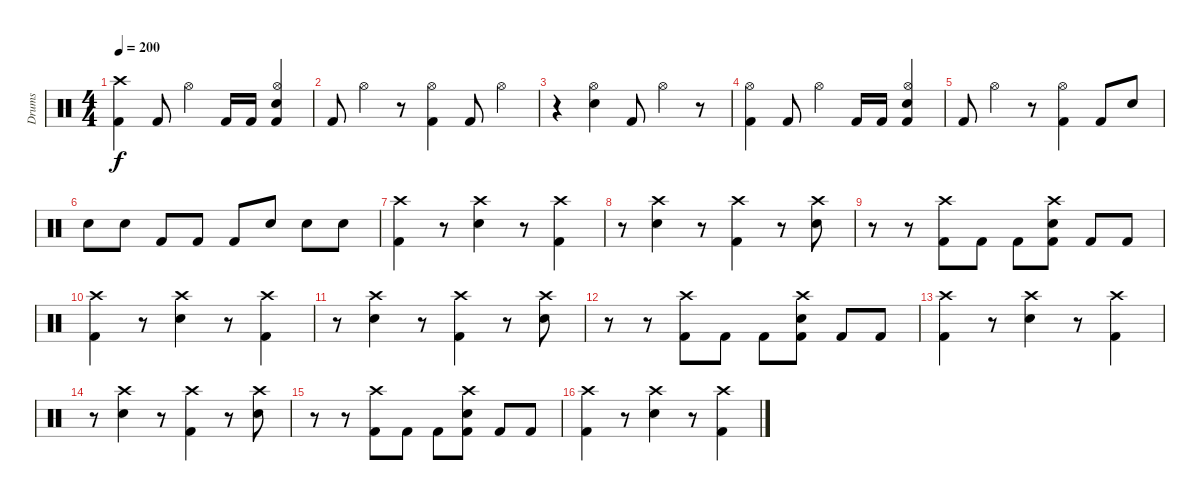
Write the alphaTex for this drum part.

\track ("Drums" "Drums") {instrument percussion}
\staff {score}
\articulation defaults
\ts (4 4)
\tempo 200
\clef neutral
\ks c
("Crash high (hit)" "Kick (hit) 2").4{dy f} "Kick (hit) 2".8 "Hi-Hat (open)".4 "Kick (hit) 2".16 "Kick (hit) 2".16 ("Hi-Hat (open)" "Snare (hit) 2" "Kick (hit) 2").4 |
"Kick (hit) 2".8 "Hi-Hat (open)".4 r.8 ("Hi-Hat (open)" "Kick (hit) 2").4 "Kick (hit) 2".8 "Hi-Hat (open)".4 |
r.4 ("Hi-Hat (open)" "Snare (hit) 2").4 "Kick (hit) 2".8 "Hi-Hat (open)".4 r.8 |
("Hi-Hat (open)" "Kick (hit) 2").4 "Kick (hit) 2".8 "Hi-Hat (open)".4 "Kick (hit) 2".16 "Kick (hit) 2".16 ("Hi-Hat (open)" "Snare (hit) 2" "Kick (hit) 2").4 |
"Kick (hit) 2".8 "Hi-Hat (open)".4 r.8 ("Hi-Hat (open)" "Kick (hit) 2").4 "Kick (hit) 2".8 "Snare (hit) 2".8 |
"Snare (hit) 2".8 "Snare (hit) 2".8 "Kick (hit) 2".8 "Kick (hit) 2".8 "Kick (hit) 2".8 "Snare (hit) 2".8 "Snare (hit) 2".8 "Snare (hit) 2".8 |
("Crash high (hit)" "Kick (hit) 2").4 r.8 ("Crash high (hit)" "Snare (hit) 2").4 r.8 ("Crash high (hit)" "Kick (hit) 2").4 |
r.8 ("Crash high (hit)" "Snare (hit) 2").4 r.8 ("Crash high (hit)" "Kick (hit) 2").4 r.8 ("Crash high (hit)" "Snare (hit) 2").8 |
r.8 r.8 ("Crash high (hit)" "Kick (hit) 2").8 "Kick (hit) 2".8 "Kick (hit) 2".8 ("Crash high (hit)" "Snare (hit) 2" "Kick (hit) 2").8 "Kick (hit) 2".8 "Kick (hit) 2".8 |
("Crash high (hit)" "Kick (hit) 2").4 r.8 ("Crash high (hit)" "Snare (hit) 2").4 r.8 ("Crash high (hit)" "Kick (hit) 2").4 |
r.8 ("Crash high (hit)" "Snare (hit) 2").4 r.8 ("Crash high (hit)" "Kick (hit) 2").4 r.8 ("Crash high (hit)" "Snare (hit) 2").8 |
r.8 r.8 ("Crash high (hit)" "Kick (hit) 2").8 "Kick (hit) 2".8 "Kick (hit) 2".8 ("Crash high (hit)" "Snare (hit) 2" "Kick (hit) 2").8 "Kick (hit) 2".8 "Kick (hit) 2".8 |
("Crash high (hit)" "Kick (hit) 2").4 r.8 ("Crash high (hit)" "Snare (hit) 2").4 r.8 ("Crash high (hit)" "Kick (hit) 2").4 |
r.8 ("Crash high (hit)" "Snare (hit) 2").4 r.8 ("Crash high (hit)" "Kick (hit) 2").4 r.8 ("Crash high (hit)" "Snare (hit) 2").8 |
r.8 r.8 ("Crash high (hit)" "Kick (hit) 2").8 "Kick (hit) 2".8 "Kick (hit) 2".8 ("Crash high (hit)" "Snare (hit) 2" "Kick (hit) 2").8 "Kick (hit) 2".8 "Kick (hit) 2".8 |
("Crash high (hit)" "Kick (hit) 2").4 r.8 ("Crash high (hit)" "Snare (hit) 2").4 r.8 ("Crash high (hit)" "Kick (hit) 2").4
